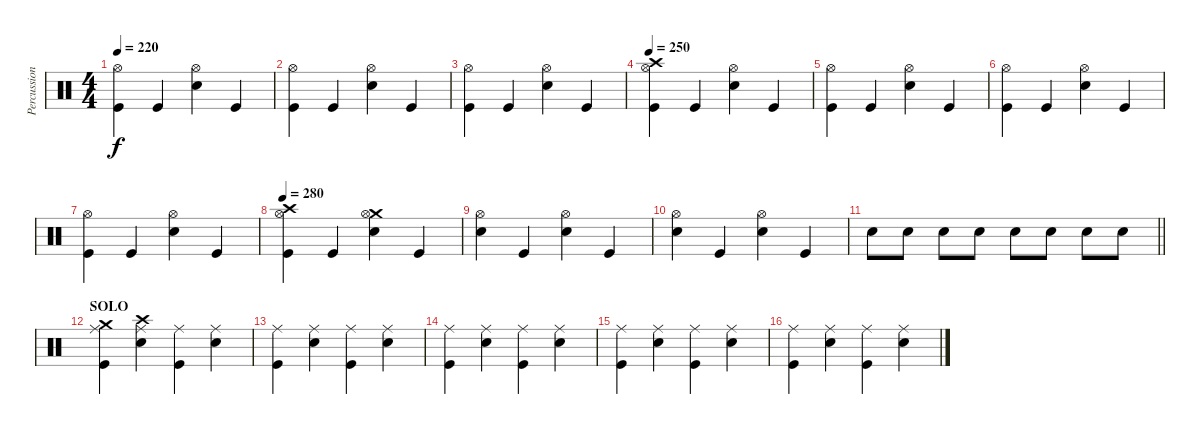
\track ("Percussion" "Percussion") {instrument percussion}
\staff {score}
\articulation defaults
\ts (4 4)
\tempo 220
\clef neutral
\ks c
("Hi-Hat (open)" "Kick (hit)").4{dy f} "Kick (hit)".4 ("Hi-Hat (open)" "Snare (hit) 2").4 "Kick (hit)".4 |
("Hi-Hat (open)" "Kick (hit)").4 "Kick (hit)".4 ("Hi-Hat (open)" "Snare (hit) 2").4 "Kick (hit)".4 |
("Hi-Hat (open)" "Kick (hit)").4 "Kick (hit)".4 ("Hi-Hat (open)" "Snare (hit) 2").4 "Kick (hit)".4 |
\tempo 250
("Crash high (hit)" "Hi-Hat (open)" "Kick (hit)").4 "Kick (hit)".4 ("Hi-Hat (open)" "Snare (hit) 2").4 "Kick (hit)".4 |
("Hi-Hat (open)" "Kick (hit)").4 "Kick (hit)".4 ("Hi-Hat (open)" "Snare (hit) 2").4 "Kick (hit)".4 |
("Hi-Hat (open)" "Kick (hit)").4 "Kick (hit)".4 ("Hi-Hat (open)" "Snare (hit) 2").4 "Kick (hit)".4 |
("Hi-Hat (open)" "Kick (hit)").4 "Kick (hit)".4 ("Hi-Hat (open)" "Snare (hit) 2").4 "Kick (hit)".4 |
\tempo 280
("Crash high (hit)" "Hi-Hat (open)" "Kick (hit)").4 "Kick (hit)".4 ("Crash medium (hit)" "Hi-Hat (open)" "Snare (hit) 2").4 "Kick (hit)".4 |
("Hi-Hat (open)" "Snare (hit) 2").4 "Kick (hit)".4 ("Hi-Hat (open)" "Snare (hit) 2").4 "Kick (hit)".4 |
("Hi-Hat (open)" "Snare (hit) 2").4 "Kick (hit)".4 ("Hi-Hat (open)" "Snare (hit) 2").4 "Kick (hit)".4 |
\barLineRight lightlight "Snare (hit) 2".8 "Snare (hit) 2".8 "Snare (hit) 2".8 "Snare (hit) 2".8 "Snare (hit) 2".8 "Snare (hit) 2".8 "Snare (hit) 2".8 "Snare (hit) 2".8
|
\section ("" "SOLO")
("Crash medium (hit)" "Ride (middle)" "Kick (hit)").4 ("Crash high (hit)" "Ride (middle)" "Snare (hit) 2").4 ("Ride (middle)" "Kick (hit)").4 ("Ride (middle)" "Snare (hit) 2").4 |
("Ride (middle)" "Kick (hit)").4 ("Ride (middle)" "Snare (hit) 2").4 ("Ride (middle)" "Kick (hit)").4 ("Ride (middle)" "Snare (hit) 2").4 |
("Ride (middle)" "Kick (hit)").4 ("Ride (middle)" "Snare (hit) 2").4 ("Ride (middle)" "Kick (hit)").4 ("Ride (middle)" "Snare (hit) 2").4 |
("Ride (middle)" "Kick (hit)").4 ("Ride (middle)" "Snare (hit) 2").4 ("Ride (middle)" "Kick (hit)").4 ("Ride (middle)" "Snare (hit) 2").4 |
("Ride (middle)" "Kick (hit)").4 ("Ride (middle)" "Snare (hit) 2").4 ("Ride (middle)" "Kick (hit)").4 ("Ride (middle)" "Snare (hit) 2").4
